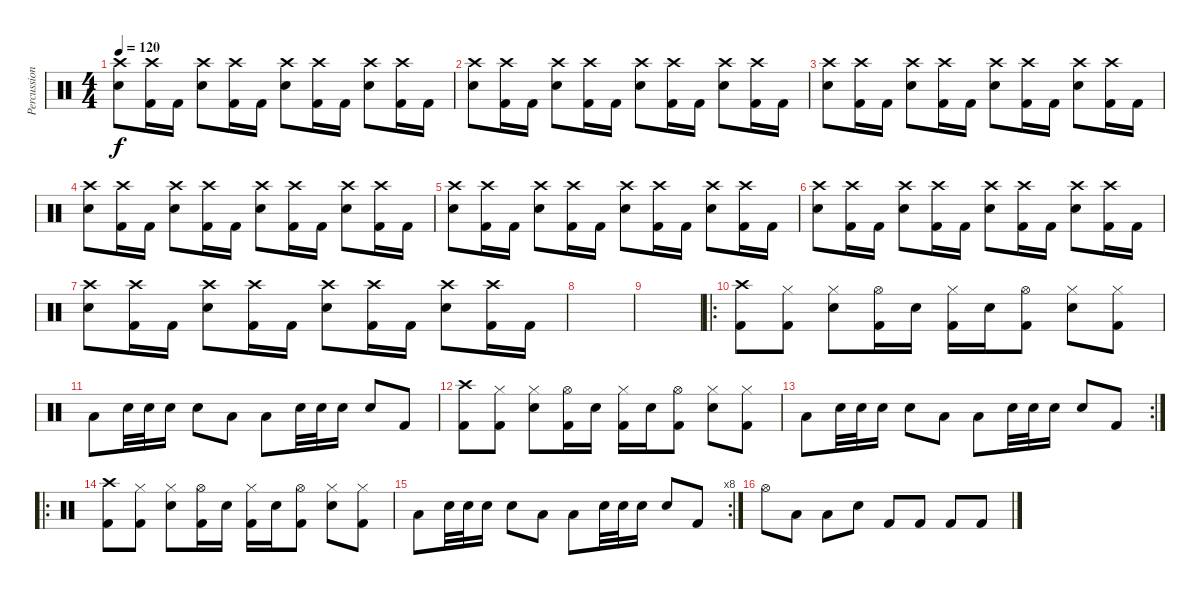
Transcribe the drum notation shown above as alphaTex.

\track ("Percussion" "Percussion") {instrument percussion}
\staff {score}
\articulation defaults
\ts (4 4)
\tempo 120
\clef neutral
\ks c
("Crash high (hit)" "Snare (hit) 2").8{dy f} ("Crash high (hit)" "Kick (hit) 2").16 "Kick (hit) 2".16 ("Crash high (hit)" "Snare (hit) 2").8 ("Crash high (hit)" "Kick (hit) 2").16 "Kick (hit) 2".16 ("Crash high (hit)" "Snare (hit) 2").8 ("Crash high (hit)" "Kick (hit) 2").16 "Kick (hit) 2".16 ("Crash high (hit)" "Snare (hit) 2").8 ("Crash high (hit)" "Kick (hit) 2").16 "Kick (hit) 2".16 |
("Crash high (hit)" "Snare (hit) 2").8 ("Crash high (hit)" "Kick (hit) 2").16 "Kick (hit) 2".16 ("Crash high (hit)" "Snare (hit) 2").8 ("Crash high (hit)" "Kick (hit) 2").16 "Kick (hit) 2".16 ("Crash high (hit)" "Snare (hit) 2").8 ("Crash high (hit)" "Kick (hit) 2").16 "Kick (hit) 2".16 ("Crash high (hit)" "Snare (hit) 2").8 ("Crash high (hit)" "Kick (hit) 2").16 "Kick (hit) 2".16 |
("Crash high (hit)" "Snare (hit) 2").8 ("Crash high (hit)" "Kick (hit) 2").16 "Kick (hit) 2".16 ("Crash high (hit)" "Snare (hit) 2").8 ("Crash high (hit)" "Kick (hit) 2").16 "Kick (hit) 2".16 ("Crash high (hit)" "Snare (hit) 2").8 ("Crash high (hit)" "Kick (hit) 2").16 "Kick (hit) 2".16 ("Crash high (hit)" "Snare (hit) 2").8 ("Crash high (hit)" "Kick (hit) 2").16 "Kick (hit) 2".16 |
("Crash high (hit)" "Snare (hit) 2").8 ("Crash high (hit)" "Kick (hit) 2").16 "Kick (hit) 2".16 ("Crash high (hit)" "Snare (hit) 2").8 ("Crash high (hit)" "Kick (hit) 2").16 "Kick (hit) 2".16 ("Crash high (hit)" "Snare (hit) 2").8 ("Crash high (hit)" "Kick (hit) 2").16 "Kick (hit) 2".16 ("Crash high (hit)" "Snare (hit) 2").8 ("Crash high (hit)" "Kick (hit) 2").16 "Kick (hit) 2".16 |
("Crash high (hit)" "Snare (hit) 2").8 ("Crash high (hit)" "Kick (hit) 2").16 "Kick (hit) 2".16 ("Crash high (hit)" "Snare (hit) 2").8 ("Crash high (hit)" "Kick (hit) 2").16 "Kick (hit) 2".16 ("Crash high (hit)" "Snare (hit) 2").8 ("Crash high (hit)" "Kick (hit) 2").16 "Kick (hit) 2".16 ("Crash high (hit)" "Snare (hit) 2").8 ("Crash high (hit)" "Kick (hit) 2").16 "Kick (hit) 2".16 |
("Crash high (hit)" "Snare (hit) 2").8 ("Crash high (hit)" "Kick (hit) 2").16 "Kick (hit) 2".16 ("Crash high (hit)" "Snare (hit) 2").8 ("Crash high (hit)" "Kick (hit) 2").16 "Kick (hit) 2".16 ("Crash high (hit)" "Snare (hit) 2").8 ("Crash high (hit)" "Kick (hit) 2").16 "Kick (hit) 2".16 ("Crash high (hit)" "Snare (hit) 2").8 ("Crash high (hit)" "Kick (hit) 2").16 "Kick (hit) 2".16 |
("Crash high (hit)" "Snare (hit) 2").8 ("Crash high (hit)" "Kick (hit) 2").16 "Kick (hit) 2".16 ("Crash high (hit)" "Snare (hit) 2").8 ("Crash high (hit)" "Kick (hit) 2").16 "Kick (hit) 2".16 ("Crash high (hit)" "Snare (hit) 2").8 ("Crash high (hit)" "Kick (hit) 2").16 "Kick (hit) 2".16 ("Crash high (hit)" "Snare (hit) 2").8 ("Crash high (hit)" "Kick (hit) 2").16 "Kick (hit) 2".16 |
|
|
\ro
("Crash high (hit)" "Kick (hit) 2").8 ("Hi-Hat (closed)" "Kick (hit) 2").8 ("Hi-Hat (closed)" "Snare (hit) 2").8 ("Hi-Hat (open)" "Kick (hit) 2").16 "Snare (hit) 2".16 ("Hi-Hat (closed)" "Kick (hit) 2").16 "Snare (hit) 2".16 ("Hi-Hat (open)" "Kick (hit) 2").8 ("Hi-Hat (closed)" "Snare (hit) 2").8 ("Hi-Hat (closed)" "Kick (hit) 2").8 |
"Low Tom (hit)".8 "Snare (hit) 2".32 "Snare (hit) 2".32 "Snare (hit) 2".16 "Snare (hit) 2".8 "Low Tom (hit)".8 "Low Tom (hit)".8 "Snare (hit) 2".32 "Snare (hit) 2".32 "Snare (hit) 2".16 "Snare (hit) 2".8 "Kick (hit) 2".8 |
("Crash high (hit)" "Kick (hit) 2").8 ("Hi-Hat (closed)" "Kick (hit) 2").8 ("Hi-Hat (closed)" "Snare (hit) 2").8 ("Hi-Hat (open)" "Kick (hit) 2").16 "Snare (hit) 2".16 ("Hi-Hat (closed)" "Kick (hit) 2").16 "Snare (hit) 2".16 ("Hi-Hat (open)" "Kick (hit) 2").8 ("Hi-Hat (closed)" "Snare (hit) 2").8 ("Hi-Hat (closed)" "Kick (hit) 2").8 |
\rc 2 "Low Tom (hit)".8 "Snare (hit) 2".32 "Snare (hit) 2".32 "Snare (hit) 2".16 "Snare (hit) 2".8 "Low Tom (hit)".8 "Low Tom (hit)".8 "Snare (hit) 2".32 "Snare (hit) 2".32 "Snare (hit) 2".16 "Snare (hit) 2".8 "Kick (hit) 2".8
|
\ro
("Crash high (hit)" "Kick (hit) 2").8 ("Hi-Hat (closed)" "Kick (hit) 2").8 ("Hi-Hat (closed)" "Snare (hit) 2").8 ("Hi-Hat (open)" "Kick (hit) 2").16 "Snare (hit) 2".16 ("Hi-Hat (closed)" "Kick (hit) 2").16 "Snare (hit) 2".16 ("Hi-Hat (open)" "Kick (hit) 2").8 ("Hi-Hat (closed)" "Snare (hit) 2").8 ("Hi-Hat (closed)" "Kick (hit) 2").8 |
\rc 8 "Low Tom (hit)".8 "Snare (hit) 2".32 "Snare (hit) 2".32 "Snare (hit) 2".16 "Snare (hit) 2".8 "Low Tom (hit)".8 "Low Tom (hit)".8 "Snare (hit) 2".32 "Snare (hit) 2".32 "Snare (hit) 2".16 "Snare (hit) 2".8 "Kick (hit) 2".8
|
"Hi-Hat (open)".8 "Low Tom (hit)".8 "Low Tom (hit)".8 "Snare (hit) 2".8 "Kick (hit) 2".8 "Kick (hit) 2".8 "Kick (hit) 2".8 "Kick (hit) 2".8
